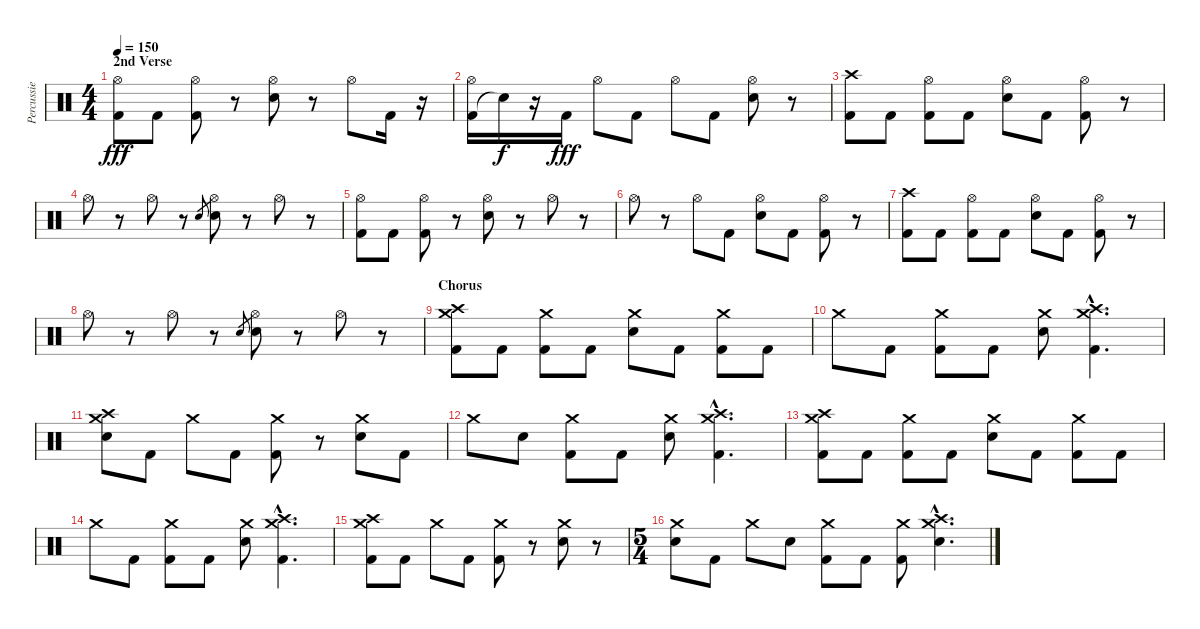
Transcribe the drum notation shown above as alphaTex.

\track ("Percussie" "Percussie") {instrument percussion}
\staff {score}
\articulation defaults
\ts (4 4)
\section ("" "2nd Verse")
\tempo 150
\clef neutral
\ks c
("Kick (hit) 2" "Hi-Hat (open)").8{dy fff} "Kick (hit) 2".8 ("Kick (hit) 2" "Hi-Hat (open)").8 r.8 ("Electric Snare (hit)" "Hi-Hat (open)").8 r.8 "Hi-Hat (open)".8 "Kick (hit) 2".16 r.16 |
("Kick (hit) 2" "Hi-Hat (open)").16 "Snare (hit)"{t}.16{dy f} r.16 "Kick (hit) 2".16{dy fff} "Hi-Hat (open)".8 "Kick (hit) 2".8 "Hi-Hat (open)".8 "Kick (hit) 2".8 ("Electric Snare (hit)" "Hi-Hat (open)").8 r.8 |
("Kick (hit) 2" "Crash high (hit)").8 "Kick (hit) 2".8 ("Kick (hit) 2" "Hi-Hat (open)").8 "Kick (hit) 2".8 ("Electric Snare (hit)" "Hi-Hat (open)").8 "Kick (hit) 2".8 ("Kick (hit) 2" "Hi-Hat (open)").8 r.8 |
"Hi-Hat (open)".8 r.8 "Hi-Hat (open)".8 r.8 "Electric Snare (hit)".8{gr} ("Electric Snare (hit)" "Hi-Hat (open)").8 r.8 "Hi-Hat (open)".8 r.8 |
("Kick (hit) 2" "Hi-Hat (open)").8 "Kick (hit) 2".8 ("Kick (hit) 2" "Hi-Hat (open)").8 r.8 ("Electric Snare (hit)" "Hi-Hat (open)").8 r.8 "Hi-Hat (open)".8 r.8 |
"Hi-Hat (open)".8 r.8 "Hi-Hat (open)".8 "Kick (hit) 2".8 ("Electric Snare (hit)" "Hi-Hat (open)").8 "Kick (hit) 2".8 ("Kick (hit) 2" "Hi-Hat (open)").8 r.8 |
("Kick (hit) 2" "Crash high (hit)").8 "Kick (hit) 2".8 ("Kick (hit) 2" "Hi-Hat (open)").8 "Kick (hit) 2".8 ("Electric Snare (hit)" "Hi-Hat (open)").8 "Kick (hit) 2".8 ("Kick (hit) 2" "Hi-Hat (open)").8 r.8 |
"Hi-Hat (open)".8 r.8 "Hi-Hat (open)".8 r.8 "Electric Snare (hit)".8{gr} ("Electric Snare (hit)" "Hi-Hat (open)").8 r.8 "Hi-Hat (open)".8 r.8 |
\section ("" "Chorus")
("Kick (hit) 2" "Crash high (hit)" "Crash medium (hit)").8 "Kick (hit) 2".8 ("Kick (hit) 2" "Crash medium (hit)").8 "Kick (hit) 2".8 ("Electric Snare (hit)" "Crash medium (hit)").8 "Kick (hit) 2".8 ("Kick (hit) 2" "Crash medium (hit)").8 "Kick (hit) 2".8 |
"Crash medium (hit)".8 "Kick (hit) 2".8 ("Kick (hit) 2" "Crash medium (hit)").8 "Kick (hit) 2".8 ("Electric Snare (hit)" "Crash medium (hit)").8 ("Kick (hit) 2"{hac} "Crash high (hit)"{hac} "Crash medium (hit)"{hac}).4{d} |
("Electric Snare (hit)" "Crash high (hit)" "Crash medium (hit)").8 "Kick (hit) 2".8 "Crash medium (hit)".8 "Kick (hit) 2".8 ("Kick (hit) 2" "Crash medium (hit)").8 r.8 ("Electric Snare (hit)" "Crash medium (hit)").8 "Kick (hit) 2".8 |
"Crash medium (hit)".8 "Electric Snare (hit)".8 ("Kick (hit) 2" "Crash medium (hit)").8 "Kick (hit) 2".8 ("Electric Snare (hit)" "Crash medium (hit)").8 ("Kick (hit) 2"{hac} "Crash high (hit)"{hac} "Crash medium (hit)"{hac}).4{d} |
("Kick (hit) 2" "Crash high (hit)" "Crash medium (hit)").8 "Kick (hit) 2".8 ("Kick (hit) 2" "Crash medium (hit)").8 "Kick (hit) 2".8 ("Electric Snare (hit)" "Crash medium (hit)").8 "Kick (hit) 2".8 ("Kick (hit) 2" "Crash medium (hit)").8 "Kick (hit) 2".8 |
"Crash medium (hit)".8 "Kick (hit) 2".8 ("Kick (hit) 2" "Crash medium (hit)").8 "Kick (hit) 2".8 ("Electric Snare (hit)" "Crash medium (hit)").8 ("Kick (hit) 2"{hac} "Crash high (hit)"{hac} "Crash medium (hit)"{hac}).4{d} |
("Kick (hit) 2" "Crash high (hit)" "Crash medium (hit)").8 "Kick (hit) 2".8 "Crash medium (hit)".8 "Kick (hit) 2".8 ("Kick (hit) 2" "Crash medium (hit)").8 r.8 ("Electric Snare (hit)" "Crash medium (hit)").8 r.8 |
\ts (5 4)
("Electric Snare (hit)" "Crash medium (hit)").8 "Kick (hit) 2".8 "Crash medium (hit)".8 "Electric Snare (hit)".8 ("Kick (hit) 2" "Crash medium (hit)").8 "Kick (hit) 2".8 ("Kick (hit) 2" "Crash medium (hit)").8 ("Electric Snare (hit)"{hac} "Crash high (hit)"{hac} "Crash medium (hit)"{hac}).4{d}
